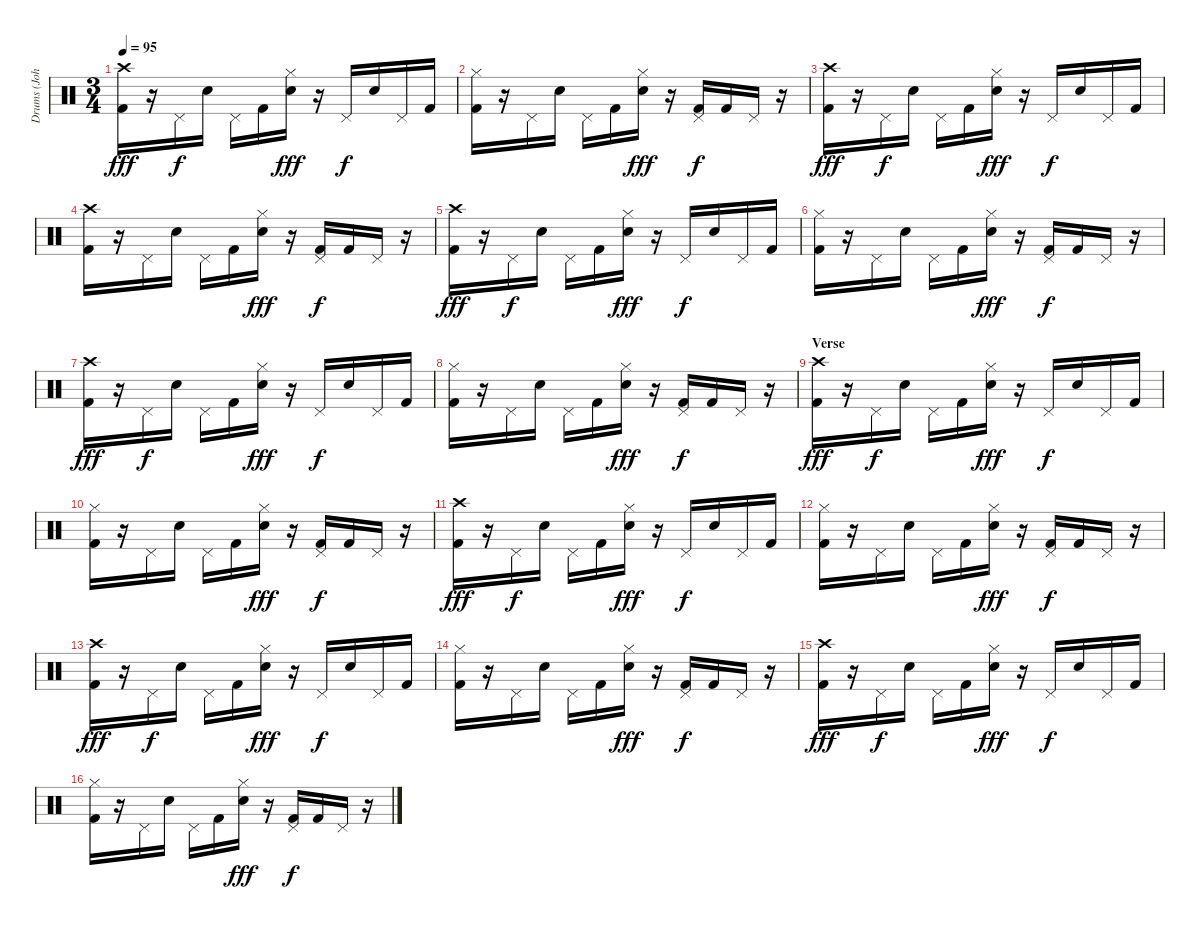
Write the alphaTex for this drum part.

\track ("Drums (John Otto)" "Drums (Joh") {instrument percussion}
\staff {score}
\articulation defaults
\ts (3 4)
\tempo 95
\clef neutral
\ks c
("Crash high (hit)" "Kick (hit) 2").16{dy fff} r.16 "Pedal Hi-Hat (hit)".16{dy f} "Electric Snare (hit)".16 "Pedal Hi-Hat (hit)".16 "Kick (hit) 2".16 ("Hi-Hat (closed)" "Electric Snare (hit)").16{dy fff} r.16 "Pedal Hi-Hat (hit)".16{dy f} "Electric Snare (hit)".16 "Pedal Hi-Hat (hit)".16 "Kick (hit) 2".16 |
("Hi-Hat (closed)" "Kick (hit) 2").16 r.16 "Pedal Hi-Hat (hit)".16 "Electric Snare (hit)".16 "Pedal Hi-Hat (hit)".16 "Kick (hit) 2".16 ("Hi-Hat (closed)" "Electric Snare (hit)").16{dy fff} r.16 ("Pedal Hi-Hat (hit)" "Kick (hit) 2").16{dy f} "Kick (hit) 2".16 "Pedal Hi-Hat (hit)".16 r.16 |
("Crash high (hit)" "Kick (hit) 2").16{dy fff} r.16 "Pedal Hi-Hat (hit)".16{dy f} "Electric Snare (hit)".16 "Pedal Hi-Hat (hit)".16 "Kick (hit) 2".16 ("Hi-Hat (closed)" "Electric Snare (hit)").16{dy fff} r.16 "Pedal Hi-Hat (hit)".16{dy f} "Electric Snare (hit)".16 "Pedal Hi-Hat (hit)".16 "Kick (hit) 2".16 |
("Crash high (hit)" "Kick (hit) 2").16 r.16 "Pedal Hi-Hat (hit)".16 "Electric Snare (hit)".16 "Pedal Hi-Hat (hit)".16 "Kick (hit) 2".16 ("Hi-Hat (closed)" "Electric Snare (hit)").16{dy fff} r.16 ("Pedal Hi-Hat (hit)" "Kick (hit) 2").16{dy f} "Kick (hit) 2".16 "Pedal Hi-Hat (hit)".16 r.16 |
("Crash high (hit)" "Kick (hit) 2").16{dy fff} r.16 "Pedal Hi-Hat (hit)".16{dy f} "Electric Snare (hit)".16 "Pedal Hi-Hat (hit)".16 "Kick (hit) 2".16 ("Hi-Hat (closed)" "Electric Snare (hit)").16{dy fff} r.16 "Pedal Hi-Hat (hit)".16{dy f} "Electric Snare (hit)".16 "Pedal Hi-Hat (hit)".16 "Kick (hit) 2".16 |
("Hi-Hat (closed)" "Kick (hit) 2").16 r.16 "Pedal Hi-Hat (hit)".16 "Electric Snare (hit)".16 "Pedal Hi-Hat (hit)".16 "Kick (hit) 2".16 ("Hi-Hat (closed)" "Electric Snare (hit)").16{dy fff} r.16 ("Pedal Hi-Hat (hit)" "Kick (hit) 2").16{dy f} "Kick (hit) 2".16 "Pedal Hi-Hat (hit)".16 r.16 |
("Crash high (hit)" "Kick (hit) 2").16{dy fff} r.16 "Pedal Hi-Hat (hit)".16{dy f} "Electric Snare (hit)".16 "Pedal Hi-Hat (hit)".16 "Kick (hit) 2".16 ("Hi-Hat (closed)" "Electric Snare (hit)").16{dy fff} r.16 "Pedal Hi-Hat (hit)".16{dy f} "Electric Snare (hit)".16 "Pedal Hi-Hat (hit)".16 "Kick (hit) 2".16 |
("Hi-Hat (closed)" "Kick (hit) 2").16 r.16 "Pedal Hi-Hat (hit)".16 "Electric Snare (hit)".16 "Pedal Hi-Hat (hit)".16 "Kick (hit) 2".16 ("Hi-Hat (closed)" "Electric Snare (hit)").16{dy fff} r.16 ("Pedal Hi-Hat (hit)" "Kick (hit) 2").16{dy f} "Kick (hit) 2".16 "Pedal Hi-Hat (hit)".16 r.16 |
\section ("" "Verse")
("Crash high (hit)" "Kick (hit) 2").16{dy fff} r.16 "Pedal Hi-Hat (hit)".16{dy f} "Electric Snare (hit)".16 "Pedal Hi-Hat (hit)".16 "Kick (hit) 2".16 ("Hi-Hat (closed)" "Electric Snare (hit)").16{dy fff} r.16 "Pedal Hi-Hat (hit)".16{dy f} "Electric Snare (hit)".16 "Pedal Hi-Hat (hit)".16 "Kick (hit) 2".16 |
("Hi-Hat (closed)" "Kick (hit) 2").16 r.16 "Pedal Hi-Hat (hit)".16 "Electric Snare (hit)".16 "Pedal Hi-Hat (hit)".16 "Kick (hit) 2".16 ("Hi-Hat (closed)" "Electric Snare (hit)").16{dy fff} r.16 ("Pedal Hi-Hat (hit)" "Kick (hit) 2").16{dy f} "Kick (hit) 2".16 "Pedal Hi-Hat (hit)".16 r.16 |
("Crash high (hit)" "Kick (hit) 2").16{dy fff} r.16 "Pedal Hi-Hat (hit)".16{dy f} "Electric Snare (hit)".16 "Pedal Hi-Hat (hit)".16 "Kick (hit) 2".16 ("Hi-Hat (closed)" "Electric Snare (hit)").16{dy fff} r.16 "Pedal Hi-Hat (hit)".16{dy f} "Electric Snare (hit)".16 "Pedal Hi-Hat (hit)".16 "Kick (hit) 2".16 |
("Hi-Hat (closed)" "Kick (hit) 2").16 r.16 "Pedal Hi-Hat (hit)".16 "Electric Snare (hit)".16 "Pedal Hi-Hat (hit)".16 "Kick (hit) 2".16 ("Hi-Hat (closed)" "Electric Snare (hit)").16{dy fff} r.16 ("Pedal Hi-Hat (hit)" "Kick (hit) 2").16{dy f} "Kick (hit) 2".16 "Pedal Hi-Hat (hit)".16 r.16 |
("Crash high (hit)" "Kick (hit) 2").16{dy fff} r.16 "Pedal Hi-Hat (hit)".16{dy f} "Electric Snare (hit)".16 "Pedal Hi-Hat (hit)".16 "Kick (hit) 2".16 ("Hi-Hat (closed)" "Electric Snare (hit)").16{dy fff} r.16 "Pedal Hi-Hat (hit)".16{dy f} "Electric Snare (hit)".16 "Pedal Hi-Hat (hit)".16 "Kick (hit) 2".16 |
("Hi-Hat (closed)" "Kick (hit) 2").16 r.16 "Pedal Hi-Hat (hit)".16 "Electric Snare (hit)".16 "Pedal Hi-Hat (hit)".16 "Kick (hit) 2".16 ("Hi-Hat (closed)" "Electric Snare (hit)").16{dy fff} r.16 ("Pedal Hi-Hat (hit)" "Kick (hit) 2").16{dy f} "Kick (hit) 2".16 "Pedal Hi-Hat (hit)".16 r.16 |
("Crash high (hit)" "Kick (hit) 2").16{dy fff} r.16 "Pedal Hi-Hat (hit)".16{dy f} "Electric Snare (hit)".16 "Pedal Hi-Hat (hit)".16 "Kick (hit) 2".16 ("Hi-Hat (closed)" "Electric Snare (hit)").16{dy fff} r.16 "Pedal Hi-Hat (hit)".16{dy f} "Electric Snare (hit)".16 "Pedal Hi-Hat (hit)".16 "Kick (hit) 2".16 |
("Hi-Hat (closed)" "Kick (hit) 2").16 r.16 "Pedal Hi-Hat (hit)".16 "Electric Snare (hit)".16 "Pedal Hi-Hat (hit)".16 "Kick (hit) 2".16 ("Hi-Hat (closed)" "Electric Snare (hit)").16{dy fff} r.16 ("Pedal Hi-Hat (hit)" "Kick (hit) 2").16{dy f} "Kick (hit) 2".16 "Pedal Hi-Hat (hit)".16 r.16
